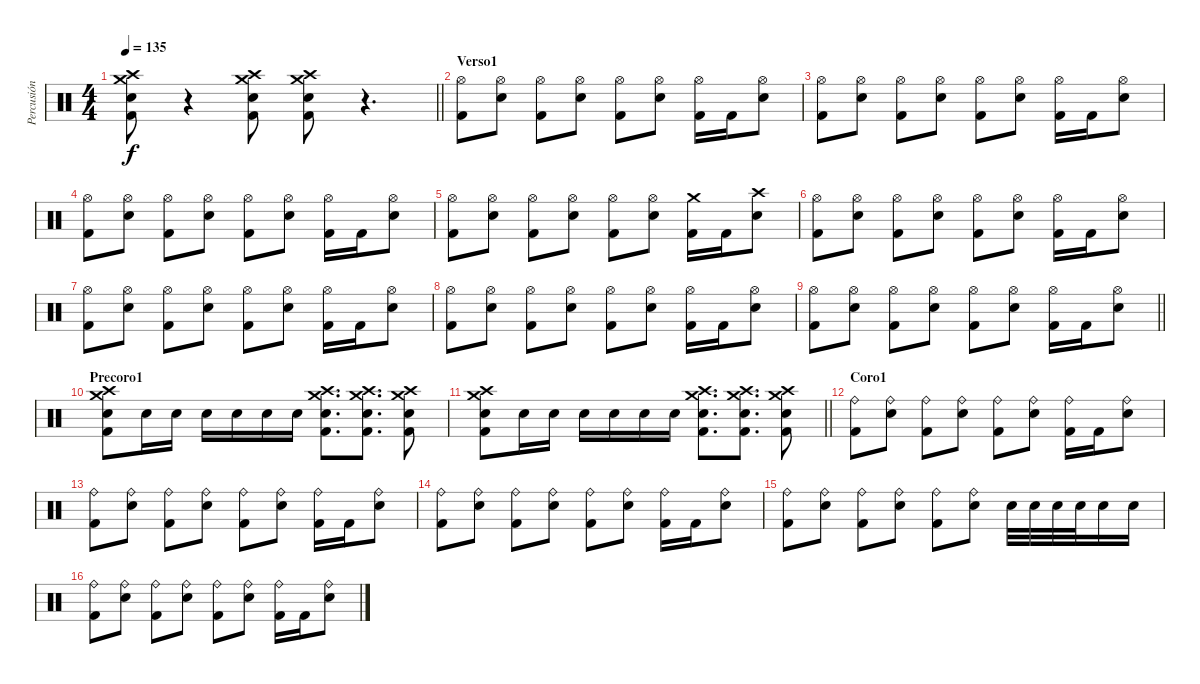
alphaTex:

\track ("Percusión" "Percusión") {instrument percussion}
\staff {score}
\articulation defaults
\ts (4 4)
\tempo 135
\clef neutral
\barLineRight lightlight
\ks c
("Crash medium (hit)" "Crash high (hit)" "Electric Snare (hit)" "Kick (hit) 2").8{dy f} r.4 ("Crash medium (hit)" "Crash high (hit)" "Electric Snare (hit)" "Kick (hit) 2").8 ("Crash medium (hit)" "Crash high (hit)" "Electric Snare (hit)" "Kick (hit) 2").8 r.4{d} |
\section ("" "Verso1")
("Hi-Hat (open)" "Kick (hit) 2").8 ("Hi-Hat (open)" "Electric Snare (hit)").8 ("Hi-Hat (open)" "Kick (hit) 2").8 ("Hi-Hat (open)" "Electric Snare (hit)").8 ("Hi-Hat (open)" "Kick (hit) 2").8 ("Hi-Hat (open)" "Electric Snare (hit)").8 ("Hi-Hat (open)" "Kick (hit) 2").16 "Kick (hit) 2".16 ("Hi-Hat (open)" "Electric Snare (hit)").8 |
("Hi-Hat (open)" "Kick (hit) 2").8 ("Hi-Hat (open)" "Electric Snare (hit)").8 ("Hi-Hat (open)" "Kick (hit) 2").8 ("Hi-Hat (open)" "Electric Snare (hit)").8 ("Hi-Hat (open)" "Kick (hit) 2").8 ("Hi-Hat (open)" "Electric Snare (hit)").8 ("Hi-Hat (open)" "Kick (hit) 2").16 "Kick (hit) 2".16 ("Hi-Hat (open)" "Electric Snare (hit)").8 |
("Hi-Hat (open)" "Kick (hit) 2").8 ("Hi-Hat (open)" "Electric Snare (hit)").8 ("Hi-Hat (open)" "Kick (hit) 2").8 ("Hi-Hat (open)" "Electric Snare (hit)").8 ("Hi-Hat (open)" "Kick (hit) 2").8 ("Hi-Hat (open)" "Electric Snare (hit)").8 ("Hi-Hat (open)" "Kick (hit) 2").16 "Kick (hit) 2".16 ("Hi-Hat (open)" "Electric Snare (hit)").8 |
("Hi-Hat (open)" "Kick (hit) 2").8 ("Hi-Hat (open)" "Electric Snare (hit)").8 ("Hi-Hat (open)" "Kick (hit) 2").8 ("Hi-Hat (open)" "Electric Snare (hit)").8 ("Hi-Hat (open)" "Kick (hit) 2").8 ("Hi-Hat (open)" "Electric Snare (hit)").8 ("Crash medium (hit)" "Kick (hit) 2").16 "Kick (hit) 2".16 ("Crash high (hit)" "Electric Snare (hit)").8 |
("Hi-Hat (open)" "Kick (hit) 2").8 ("Hi-Hat (open)" "Electric Snare (hit)").8 ("Hi-Hat (open)" "Kick (hit) 2").8 ("Hi-Hat (open)" "Electric Snare (hit)").8 ("Hi-Hat (open)" "Kick (hit) 2").8 ("Hi-Hat (open)" "Electric Snare (hit)").8 ("Hi-Hat (open)" "Kick (hit) 2").16 "Kick (hit) 2".16 ("Hi-Hat (open)" "Electric Snare (hit)").8 |
("Hi-Hat (open)" "Kick (hit) 2").8 ("Hi-Hat (open)" "Electric Snare (hit)").8 ("Hi-Hat (open)" "Kick (hit) 2").8 ("Hi-Hat (open)" "Electric Snare (hit)").8 ("Hi-Hat (open)" "Kick (hit) 2").8 ("Hi-Hat (open)" "Electric Snare (hit)").8 ("Hi-Hat (open)" "Kick (hit) 2").16 "Kick (hit) 2".16 ("Hi-Hat (open)" "Electric Snare (hit)").8 |
("Hi-Hat (open)" "Kick (hit) 2").8 ("Hi-Hat (open)" "Electric Snare (hit)").8 ("Hi-Hat (open)" "Kick (hit) 2").8 ("Hi-Hat (open)" "Electric Snare (hit)").8 ("Hi-Hat (open)" "Kick (hit) 2").8 ("Hi-Hat (open)" "Electric Snare (hit)").8 ("Hi-Hat (open)" "Kick (hit) 2").16 "Kick (hit) 2".16 ("Hi-Hat (open)" "Electric Snare (hit)").8 |
\barLineRight lightlight
("Hi-Hat (open)" "Kick (hit) 2").8 ("Hi-Hat (open)" "Electric Snare (hit)").8 ("Hi-Hat (open)" "Kick (hit) 2").8 ("Hi-Hat (open)" "Electric Snare (hit)").8 ("Hi-Hat (open)" "Kick (hit) 2").8 ("Hi-Hat (open)" "Electric Snare (hit)").8 ("Hi-Hat (open)" "Kick (hit) 2").16 "Kick (hit) 2".16 ("Hi-Hat (open)" "Electric Snare (hit)").8 |
\section ("" "Precoro1")
("Crash medium (hit)" "Crash high (hit)" "Electric Snare (hit)" "Kick (hit) 2").8 "Electric Snare (hit)".16 "Electric Snare (hit)".16 "Electric Snare (hit)".16 "Electric Snare (hit)".16 "Electric Snare (hit)".16 "Electric Snare (hit)".16 ("Crash medium (hit)" "Crash high (hit)" "Electric Snare (hit)" "Kick (hit) 2").8{d} ("Crash medium (hit)" "Crash high (hit)" "Electric Snare (hit)" "Kick (hit) 2").8{d} ("Crash medium (hit)" "Crash high (hit)" "Electric Snare (hit)" "Kick (hit) 2").8 |
\barLineRight lightlight
("Crash medium (hit)" "Crash high (hit)" "Electric Snare (hit)" "Kick (hit) 2").8 "Electric Snare (hit)".16 "Electric Snare (hit)".16 "Electric Snare (hit)".16 "Electric Snare (hit)".16 "Electric Snare (hit)".16 "Electric Snare (hit)".16 ("Crash medium (hit)" "Crash high (hit)" "Electric Snare (hit)" "Kick (hit) 2").8{d} ("Crash medium (hit)" "Crash high (hit)" "Electric Snare (hit)" "Kick (hit) 2").8{d} ("Crash medium (hit)" "Crash high (hit)" "Electric Snare (hit)" "Kick (hit) 2").8 |
\section ("" "Coro1")
("Ride (bell)" "Kick (hit) 2").8 ("Ride (bell)" "Electric Snare (hit)").8 ("Ride (bell)" "Kick (hit) 2").8 ("Ride (bell)" "Electric Snare (hit)").8 ("Ride (bell)" "Kick (hit) 2").8 ("Ride (bell)" "Electric Snare (hit)").8 ("Ride (bell)" "Kick (hit) 2").16 "Kick (hit) 2".16 ("Ride (bell)" "Electric Snare (hit)").8 |
("Ride (bell)" "Kick (hit) 2").8 ("Ride (bell)" "Electric Snare (hit)").8 ("Ride (bell)" "Kick (hit) 2").8 ("Ride (bell)" "Electric Snare (hit)").8 ("Ride (bell)" "Kick (hit) 2").8 ("Ride (bell)" "Electric Snare (hit)").8 ("Ride (bell)" "Kick (hit) 2").16 "Kick (hit) 2".16 ("Ride (bell)" "Electric Snare (hit)").8 |
("Ride (bell)" "Kick (hit) 2").8 ("Ride (bell)" "Electric Snare (hit)").8 ("Ride (bell)" "Kick (hit) 2").8 ("Ride (bell)" "Electric Snare (hit)").8 ("Ride (bell)" "Kick (hit) 2").8 ("Ride (bell)" "Electric Snare (hit)").8 ("Ride (bell)" "Kick (hit) 2").16 "Kick (hit) 2".16 ("Ride (bell)" "Electric Snare (hit)").8 |
("Ride (bell)" "Kick (hit) 2").8 ("Ride (bell)" "Electric Snare (hit)").8 ("Ride (bell)" "Kick (hit) 2").8 ("Ride (bell)" "Electric Snare (hit)").8 ("Ride (bell)" "Kick (hit) 2").8 ("Ride (bell)" "Electric Snare (hit)").8 "Electric Snare (hit)".32 "Electric Snare (hit)".32 "Electric Snare (hit)".32 "Electric Snare (hit)".32 "Electric Snare (hit)".16 "Electric Snare (hit)".16 |
("Ride (bell)" "Kick (hit) 2").8 ("Ride (bell)" "Electric Snare (hit)").8 ("Ride (bell)" "Kick (hit) 2").8 ("Ride (bell)" "Electric Snare (hit)").8 ("Ride (bell)" "Kick (hit) 2").8 ("Ride (bell)" "Electric Snare (hit)").8 ("Ride (bell)" "Kick (hit) 2").16 "Kick (hit) 2".16 ("Ride (bell)" "Electric Snare (hit)").8
